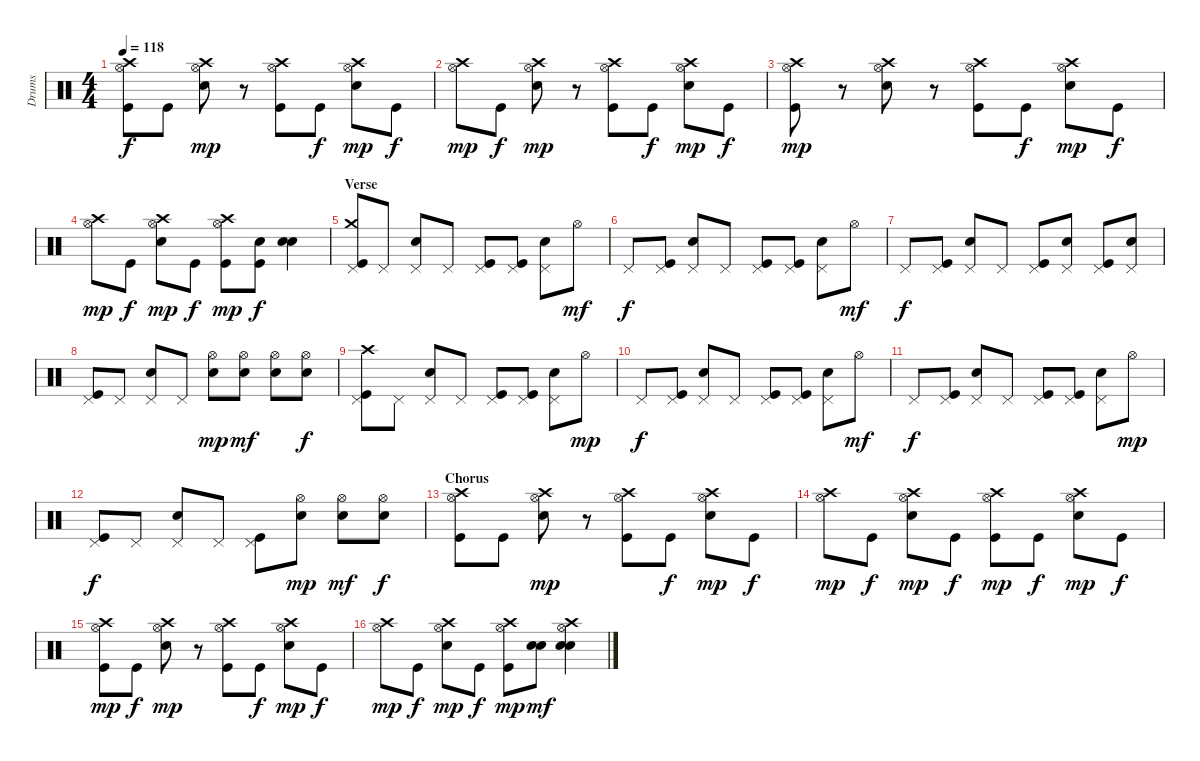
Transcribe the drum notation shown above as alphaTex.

\track ("Drums" "Drums") {instrument percussion}
\staff {score}
\articulation defaults
\ts (4 4)
\tempo 118
\clef neutral
\ks c
("Crash high (hit)" "Hi-Hat (open)" "Kick (hit)").8{dy f} "Kick (hit)".8 ("Crash high (hit)" "Hi-Hat (open)" "Snare (hit) 2").8{dy mp} r.8 ("Crash high (hit)" "Hi-Hat (open)" "Kick (hit)").8 "Kick (hit)".8{dy f} ("Crash high (hit)" "Hi-Hat (open)" "Snare (hit) 2").8{dy mp} "Kick (hit)".8{dy f} |
("Crash high (hit)" "Hi-Hat (open)").8{dy mp} "Kick (hit)".8{dy f} ("Crash high (hit)" "Hi-Hat (open)" "Snare (hit) 2").8{dy mp} r.8 ("Crash high (hit)" "Hi-Hat (open)" "Kick (hit)").8 "Kick (hit)".8{dy f} ("Crash high (hit)" "Hi-Hat (open)" "Snare (hit) 2").8{dy mp} "Kick (hit)".8{dy f} |
("Crash high (hit)" "Hi-Hat (open)" "Kick (hit)").8{dy mp} r.8 ("Crash high (hit)" "Hi-Hat (open)" "Snare (hit) 2").8 r.8 ("Crash high (hit)" "Hi-Hat (open)" "Kick (hit)").8 "Kick (hit)".8{dy f} ("Crash high (hit)" "Hi-Hat (open)" "Snare (hit) 2").8{dy mp} "Kick (hit)".8{dy f} |
("Crash high (hit)" "Hi-Hat (open)").8{dy mp} "Kick (hit)".8{dy f} ("Crash high (hit)" "Hi-Hat (open)" "Snare (hit) 2").8{dy mp} "Kick (hit)".8{dy f} ("Crash high (hit)" "Hi-Hat (open)" "Kick (hit)").8{dy mp} ("Electric Snare (hit)" "Kick (hit)").8{dy f} ("Electric Snare (hit)" "Snare (hit) 2").4 |
\section ("" "Verse")
("Crash medium (hit)" "Pedal Hi-Hat (hit)" "Kick (hit)").8 "Pedal Hi-Hat (hit)".8 ("Pedal Hi-Hat (hit)" "Snare (hit) 2").8 "Pedal Hi-Hat (hit)".8 ("Pedal Hi-Hat (hit)" "Kick (hit)").8 ("Pedal Hi-Hat (hit)" "Kick (hit)").8 ("Pedal Hi-Hat (hit)" "Snare (hit) 2").8 "Hi-Hat (open)".8{dy mf} |
"Pedal Hi-Hat (hit)".8{dy f} ("Pedal Hi-Hat (hit)" "Kick (hit)").8 ("Pedal Hi-Hat (hit)" "Snare (hit) 2").8 "Pedal Hi-Hat (hit)".8 ("Pedal Hi-Hat (hit)" "Kick (hit)").8 ("Pedal Hi-Hat (hit)" "Kick (hit)").8 ("Pedal Hi-Hat (hit)" "Snare (hit) 2").8 "Hi-Hat (open)".8{dy mf} |
"Pedal Hi-Hat (hit)".8{dy f} ("Pedal Hi-Hat (hit)" "Kick (hit)").8 ("Pedal Hi-Hat (hit)" "Snare (hit) 2").8 "Pedal Hi-Hat (hit)".8 ("Pedal Hi-Hat (hit)" "Kick (hit)").8 ("Pedal Hi-Hat (hit)" "Snare (hit) 2").8 ("Pedal Hi-Hat (hit)" "Kick (hit)").8 ("Pedal Hi-Hat (hit)" "Snare (hit) 2").8 |
("Pedal Hi-Hat (hit)" "Kick (hit)").8 "Pedal Hi-Hat (hit)".8 ("Pedal Hi-Hat (hit)" "Snare (hit) 2").8 "Pedal Hi-Hat (hit)".8 ("Hi-Hat (open)" "Snare (hit) 2").8{dy mp} ("Hi-Hat (open)" "Snare (hit) 2").8{dy mf} ("Hi-Hat (open)" "Snare (hit) 2").8 ("Hi-Hat (open)" "Snare (hit) 2").8{dy f} |
("Crash high (hit)" "Pedal Hi-Hat (hit)" "Kick (hit)").8 "Pedal Hi-Hat (hit)".8 ("Pedal Hi-Hat (hit)" "Snare (hit) 2").8 "Pedal Hi-Hat (hit)".8 ("Pedal Hi-Hat (hit)" "Kick (hit)").8 ("Pedal Hi-Hat (hit)" "Kick (hit)").8 ("Pedal Hi-Hat (hit)" "Snare (hit) 2").8 "Hi-Hat (open)".8{dy mp} |
"Pedal Hi-Hat (hit)".8{dy f} ("Pedal Hi-Hat (hit)" "Kick (hit)").8 ("Pedal Hi-Hat (hit)" "Snare (hit) 2").8 "Pedal Hi-Hat (hit)".8 ("Pedal Hi-Hat (hit)" "Kick (hit)").8 ("Pedal Hi-Hat (hit)" "Kick (hit)").8 ("Pedal Hi-Hat (hit)" "Snare (hit) 2").8 "Hi-Hat (open)".8{dy mf} |
"Pedal Hi-Hat (hit)".8{dy f} ("Pedal Hi-Hat (hit)" "Kick (hit)").8 ("Pedal Hi-Hat (hit)" "Snare (hit) 2").8 "Pedal Hi-Hat (hit)".8 ("Pedal Hi-Hat (hit)" "Kick (hit)").8 ("Pedal Hi-Hat (hit)" "Kick (hit)").8 ("Pedal Hi-Hat (hit)" "Snare (hit) 2").8 "Hi-Hat (open)".8{dy mp} |
("Pedal Hi-Hat (hit)" "Kick (hit)").8{dy f} "Pedal Hi-Hat (hit)".8 ("Pedal Hi-Hat (hit)" "Snare (hit) 2").8 "Pedal Hi-Hat (hit)".8 ("Pedal Hi-Hat (hit)" "Kick (hit)").8 ("Hi-Hat (open)" "Snare (hit) 2").8{dy mp} ("Hi-Hat (open)" "Snare (hit) 2").8{dy mf} ("Hi-Hat (open)" "Snare (hit) 2").8{dy f} |
\section ("" "Chorus")
("Crash high (hit)" "Hi-Hat (open)" "Kick (hit)").8 "Kick (hit)".8 ("Crash high (hit)" "Hi-Hat (open)" "Snare (hit) 2").8{dy mp} r.8 ("Crash high (hit)" "Hi-Hat (open)" "Kick (hit)").8 "Kick (hit)".8{dy f} ("Crash high (hit)" "Hi-Hat (open)" "Snare (hit) 2").8{dy mp} "Kick (hit)".8{dy f} |
("Crash high (hit)" "Hi-Hat (open)").8{dy mp} "Kick (hit)".8{dy f} ("Crash high (hit)" "Hi-Hat (open)" "Snare (hit) 2").8{dy mp} "Kick (hit)".8{dy f} ("Crash high (hit)" "Hi-Hat (open)" "Kick (hit)").8{dy mp} "Kick (hit)".8{dy f} ("Crash high (hit)" "Hi-Hat (open)" "Snare (hit) 2").8{dy mp} "Kick (hit)".8{dy f} |
("Crash high (hit)" "Hi-Hat (open)" "Kick (hit)").8{dy mp} "Kick (hit)".8{dy f} ("Crash high (hit)" "Hi-Hat (open)" "Snare (hit) 2").8{dy mp} r.8 ("Crash high (hit)" "Hi-Hat (open)" "Kick (hit)").8 "Kick (hit)".8{dy f} ("Crash high (hit)" "Hi-Hat (open)" "Snare (hit) 2").8{dy mp} "Kick (hit)".8{dy f} |
("Crash high (hit)" "Hi-Hat (open)").8{dy mp} "Kick (hit)".8{dy f} ("Crash high (hit)" "Hi-Hat (open)" "Snare (hit) 2").8{dy mp} "Kick (hit)".8{dy f} ("Crash high (hit)" "Hi-Hat (open)" "Kick (hit)").8{dy mp} ("Electric Snare (hit)" "Snare (hit) 2").8{dy mf} ("Crash high (hit)" "Hi-Hat (open)" "Electric Snare (hit)" "Snare (hit) 2").4
